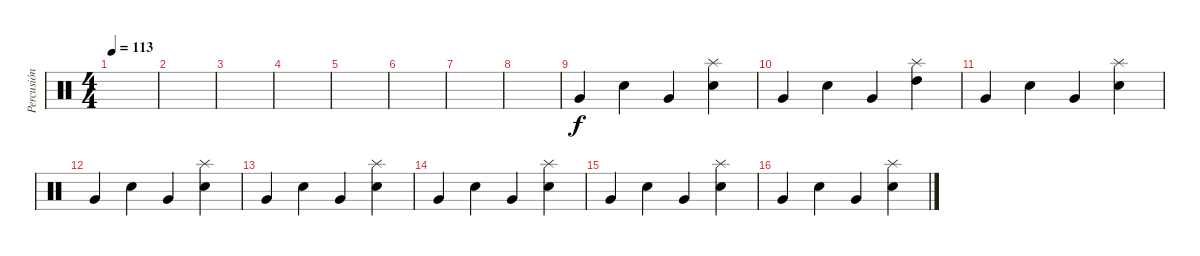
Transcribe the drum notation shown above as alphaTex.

\track ("Percusión" "Percusión") {instrument percussion}
\staff {score}
\articulation defaults
\ts (4 4)
\tempo 113
\clef neutral
\ks c
|
|
|
|
|
|
|
|
"Very Low Tom (hit)".4 "Snare (hit) 2".4 "Very Low Tom (hit)".4 ("Snare (hit) 2" "Splash (hit)").4 |
"Very Low Tom (hit)".4 "Snare (hit) 2".4 "Very Low Tom (hit)".4 ("High Tom (hit)" "Splash (hit)").4 |
"Very Low Tom (hit)".4 "Snare (hit) 2".4 "Very Low Tom (hit)".4 ("Snare (hit) 2" "Splash (hit)").4 |
"Very Low Tom (hit)".4 "Snare (hit) 2".4 "Very Low Tom (hit)".4 ("Snare (hit) 2" "Splash (hit)").4 |
"Very Low Tom (hit)".4 "Snare (hit) 2".4 "Very Low Tom (hit)".4 ("Snare (hit) 2" "Splash (hit)").4 |
"Very Low Tom (hit)".4 "Snare (hit) 2".4 "Very Low Tom (hit)".4 ("Snare (hit) 2" "Splash (hit)").4 |
"Very Low Tom (hit)".4 "Snare (hit) 2".4 "Very Low Tom (hit)".4 ("Snare (hit) 2" "Splash (hit)").4 |
"Very Low Tom (hit)".4 "Snare (hit) 2".4 "Very Low Tom (hit)".4 ("Snare (hit) 2" "Splash (hit)").4
